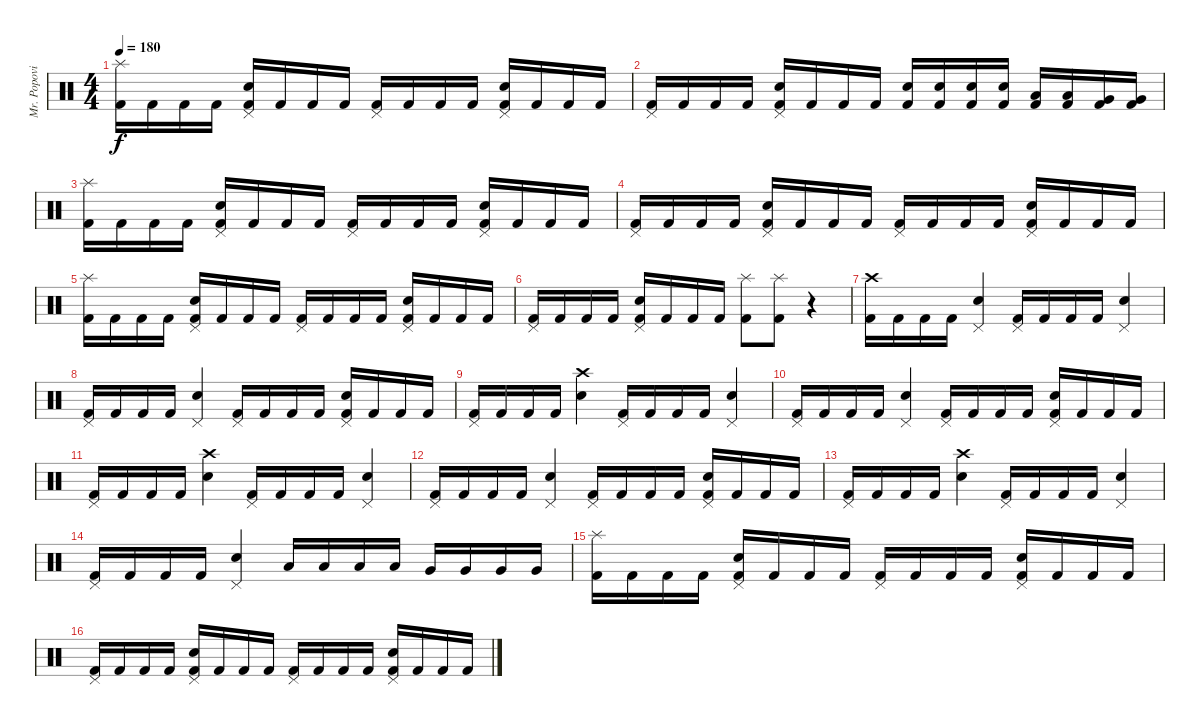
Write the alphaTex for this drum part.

\track ("Mr. Popovic" "Mr. Popovi") {instrument percussion}
\staff {score}
\articulation defaults
\ts (4 4)
\tempo 180
\clef neutral
\ks c
("Splash (hit)" "Kick (hit) 2").16{dy f} "Kick (hit) 2".16 "Kick (hit) 2".16 "Kick (hit) 2".16 ("Pedal Hi-Hat (hit)" "Electric Snare (hit)" "Kick (hit) 2").16 "Kick (hit) 2".16 "Kick (hit) 2".16 "Kick (hit) 2".16 ("Pedal Hi-Hat (hit)" "Kick (hit) 2").16 "Kick (hit) 2".16 "Kick (hit) 2".16 "Kick (hit) 2".16 ("Pedal Hi-Hat (hit)" "Electric Snare (hit)" "Kick (hit) 2").16 "Kick (hit) 2".16 "Kick (hit) 2".16 "Kick (hit) 2".16 |
("Pedal Hi-Hat (hit)" "Kick (hit) 2").16 "Kick (hit) 2".16 "Kick (hit) 2".16 "Kick (hit) 2".16 ("Pedal Hi-Hat (hit)" "Electric Snare (hit)" "Kick (hit) 2").16 "Kick (hit) 2".16 "Kick (hit) 2".16 "Kick (hit) 2".16 ("Electric Snare (hit)" "Kick (hit) 2").16 ("Electric Snare (hit)" "Kick (hit) 2").16 ("Electric Snare (hit)" "Kick (hit) 2").16 ("Electric Snare (hit)" "Kick (hit) 2").16 ("Low Tom (hit)" "Kick (hit) 2").16 ("Low Tom (hit)" "Kick (hit) 2").16 ("Very Low Tom (hit)" "Kick (hit) 2").16 ("Very Low Tom (hit)" "Kick (hit) 2").16 |
("Splash (hit)" "Kick (hit) 2").16 "Kick (hit) 2".16 "Kick (hit) 2".16 "Kick (hit) 2".16 ("Pedal Hi-Hat (hit)" "Electric Snare (hit)" "Kick (hit) 2").16 "Kick (hit) 2".16 "Kick (hit) 2".16 "Kick (hit) 2".16 ("Pedal Hi-Hat (hit)" "Kick (hit) 2").16 "Kick (hit) 2".16 "Kick (hit) 2".16 "Kick (hit) 2".16 ("Pedal Hi-Hat (hit)" "Electric Snare (hit)" "Kick (hit) 2").16 "Kick (hit) 2".16 "Kick (hit) 2".16 "Kick (hit) 2".16 |
("Pedal Hi-Hat (hit)" "Kick (hit) 2").16 "Kick (hit) 2".16 "Kick (hit) 2".16 "Kick (hit) 2".16 ("Pedal Hi-Hat (hit)" "Electric Snare (hit)" "Kick (hit) 2").16 "Kick (hit) 2".16 "Kick (hit) 2".16 "Kick (hit) 2".16 ("Pedal Hi-Hat (hit)" "Kick (hit) 2").16 "Kick (hit) 2".16 "Kick (hit) 2".16 "Kick (hit) 2".16 ("Pedal Hi-Hat (hit)" "Electric Snare (hit)" "Kick (hit) 2").16 "Kick (hit) 2".16 "Kick (hit) 2".16 "Kick (hit) 2".16 |
("Splash (hit)" "Kick (hit) 2").16 "Kick (hit) 2".16 "Kick (hit) 2".16 "Kick (hit) 2".16 ("Pedal Hi-Hat (hit)" "Electric Snare (hit)" "Kick (hit) 2").16 "Kick (hit) 2".16 "Kick (hit) 2".16 "Kick (hit) 2".16 ("Pedal Hi-Hat (hit)" "Kick (hit) 2").16 "Kick (hit) 2".16 "Kick (hit) 2".16 "Kick (hit) 2".16 ("Pedal Hi-Hat (hit)" "Electric Snare (hit)" "Kick (hit) 2").16 "Kick (hit) 2".16 "Kick (hit) 2".16 "Kick (hit) 2".16 |
("Pedal Hi-Hat (hit)" "Kick (hit) 2").16 "Kick (hit) 2".16 "Kick (hit) 2".16 "Kick (hit) 2".16 ("Pedal Hi-Hat (hit)" "Electric Snare (hit)" "Kick (hit) 2").16 "Kick (hit) 2".16 "Kick (hit) 2".16 "Kick (hit) 2".16 ("Splash (hit)" "Kick (hit) 2").8 ("Splash (hit)" "Kick (hit) 2").8 r.4 |
("Crash high (hit)" "Kick (hit) 2").16 "Kick (hit) 2".16 "Kick (hit) 2".16 "Kick (hit) 2".16 ("Pedal Hi-Hat (hit)" "Electric Snare (hit)").4 ("Pedal Hi-Hat (hit)" "Kick (hit) 2").16 "Kick (hit) 2".16 "Kick (hit) 2".16 "Kick (hit) 2".16 ("Pedal Hi-Hat (hit)" "Electric Snare (hit)").4 |
("Pedal Hi-Hat (hit)" "Kick (hit) 2").16 "Kick (hit) 2".16 "Kick (hit) 2".16 "Kick (hit) 2".16 ("Pedal Hi-Hat (hit)" "Electric Snare (hit)").4 ("Pedal Hi-Hat (hit)" "Kick (hit) 2").16 "Kick (hit) 2".16 "Kick (hit) 2".16 "Kick (hit) 2".16 ("Pedal Hi-Hat (hit)" "Electric Snare (hit)" "Kick (hit) 2").16 "Kick (hit) 2".16 "Kick (hit) 2".16 "Kick (hit) 2".16 |
("Pedal Hi-Hat (hit)" "Kick (hit) 2").16 "Kick (hit) 2".16 "Kick (hit) 2".16 "Kick (hit) 2".16 ("Crash high (hit)" "Electric Snare (hit)").4 ("Pedal Hi-Hat (hit)" "Kick (hit) 2").16 "Kick (hit) 2".16 "Kick (hit) 2".16 "Kick (hit) 2".16 ("Pedal Hi-Hat (hit)" "Electric Snare (hit)").4 |
("Pedal Hi-Hat (hit)" "Kick (hit) 2").16 "Kick (hit) 2".16 "Kick (hit) 2".16 "Kick (hit) 2".16 ("Pedal Hi-Hat (hit)" "Electric Snare (hit)").4 ("Pedal Hi-Hat (hit)" "Kick (hit) 2").16 "Kick (hit) 2".16 "Kick (hit) 2".16 "Kick (hit) 2".16 ("Pedal Hi-Hat (hit)" "Electric Snare (hit)" "Kick (hit) 2").16 "Kick (hit) 2".16 "Kick (hit) 2".16 "Kick (hit) 2".16 |
("Pedal Hi-Hat (hit)" "Kick (hit) 2").16 "Kick (hit) 2".16 "Kick (hit) 2".16 "Kick (hit) 2".16 ("Crash high (hit)" "Electric Snare (hit)").4 ("Pedal Hi-Hat (hit)" "Kick (hit) 2").16 "Kick (hit) 2".16 "Kick (hit) 2".16 "Kick (hit) 2".16 ("Pedal Hi-Hat (hit)" "Electric Snare (hit)").4 |
("Pedal Hi-Hat (hit)" "Kick (hit) 2").16 "Kick (hit) 2".16 "Kick (hit) 2".16 "Kick (hit) 2".16 ("Pedal Hi-Hat (hit)" "Electric Snare (hit)").4 ("Pedal Hi-Hat (hit)" "Kick (hit) 2").16 "Kick (hit) 2".16 "Kick (hit) 2".16 "Kick (hit) 2".16 ("Pedal Hi-Hat (hit)" "Electric Snare (hit)" "Kick (hit) 2").16 "Kick (hit) 2".16 "Kick (hit) 2".16 "Kick (hit) 2".16 |
("Pedal Hi-Hat (hit)" "Kick (hit) 2").16 "Kick (hit) 2".16 "Kick (hit) 2".16 "Kick (hit) 2".16 ("Crash high (hit)" "Electric Snare (hit)").4 ("Pedal Hi-Hat (hit)" "Kick (hit) 2").16 "Kick (hit) 2".16 "Kick (hit) 2".16 "Kick (hit) 2".16 ("Pedal Hi-Hat (hit)" "Electric Snare (hit)").4 |
("Pedal Hi-Hat (hit)" "Kick (hit) 2").16 "Kick (hit) 2".16 "Kick (hit) 2".16 "Kick (hit) 2".16 ("Pedal Hi-Hat (hit)" "Electric Snare (hit)").4 "Low Tom (hit)".16 "Low Tom (hit)".16 "Low Tom (hit)".16 "Low Tom (hit)".16 "Very Low Tom (hit)".16 "Very Low Tom (hit)".16 "Very Low Tom (hit)".16 "Very Low Tom (hit)".16 |
("Splash (hit)" "Kick (hit) 2").16 "Kick (hit) 2".16 "Kick (hit) 2".16 "Kick (hit) 2".16 ("Pedal Hi-Hat (hit)" "Electric Snare (hit)" "Kick (hit) 2").16 "Kick (hit) 2".16 "Kick (hit) 2".16 "Kick (hit) 2".16 ("Pedal Hi-Hat (hit)" "Kick (hit) 2").16 "Kick (hit) 2".16 "Kick (hit) 2".16 "Kick (hit) 2".16 ("Pedal Hi-Hat (hit)" "Electric Snare (hit)" "Kick (hit) 2").16 "Kick (hit) 2".16 "Kick (hit) 2".16 "Kick (hit) 2".16 |
("Pedal Hi-Hat (hit)" "Kick (hit) 2").16 "Kick (hit) 2".16 "Kick (hit) 2".16 "Kick (hit) 2".16 ("Pedal Hi-Hat (hit)" "Electric Snare (hit)" "Kick (hit) 2").16 "Kick (hit) 2".16 "Kick (hit) 2".16 "Kick (hit) 2".16 ("Pedal Hi-Hat (hit)" "Kick (hit) 2").16 "Kick (hit) 2".16 "Kick (hit) 2".16 "Kick (hit) 2".16 ("Pedal Hi-Hat (hit)" "Electric Snare (hit)" "Kick (hit) 2").16 "Kick (hit) 2".16 "Kick (hit) 2".16 "Kick (hit) 2".16
